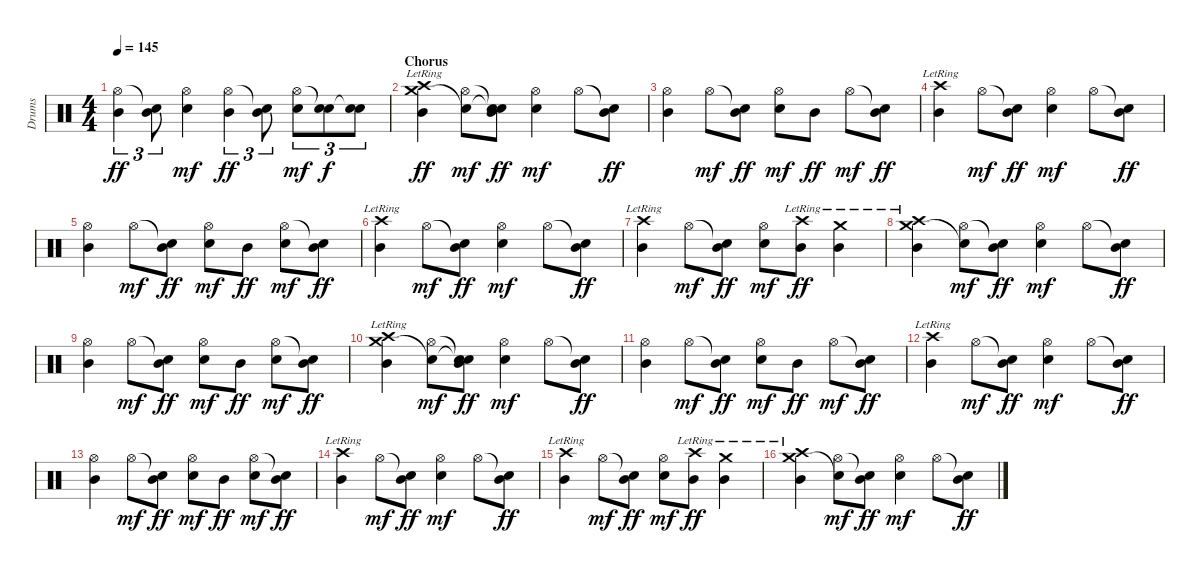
\track ("Drums" "Drums") {instrument percussion}
\staff {score}
\articulation defaults
\ts (4 4)
\tempo 145
\clef neutral
\ks c
("Hi-Hat (open)" "Mid Tom (hit)").4{tu (3 2) dy ff} ("Snare (hit)"{t} "Mid Tom (hit)").8{tu (3 2)} ("Hi-Hat (open)" "Electric Snare (hit)").4{dy mf} ("Hi-Hat (open)" "Mid Tom (hit)").4{tu (3 2) dy ff} ("Snare (hit)"{t} "Mid Tom (hit)").8{tu (3 2)} ("Hi-Hat (open)" "Electric Snare (hit)").8{tu (3 2) dy mf} ("Snare (hit)"{t} "Electric Snare (hit)").8{tu (3 2) dy f} ("Snare (hit)"{t} "Electric Snare (hit)").8{tu (3 2)} |
\section ("" "Chorus")
("Crash high (hit)"{lr} "Crash medium (hit)" "Mid Tom (hit)").4{dy ff} ("Hi-Hat (open)" "Snare (hit)"{t}).8{dy mf} ("Snare (hit)"{t} "Snare (hit)"{t} "Mid Tom (hit)").8{dy ff} ("Hi-Hat (open)" "Electric Snare (hit)").4{dy mf} "Hi-Hat (open)".8 ("Snare (hit)"{t} "Mid Tom (hit)").8{dy ff} |
("Hi-Hat (open)" "Mid Tom (hit)").4 "Hi-Hat (open)".8{dy mf} ("Snare (hit)"{t} "Mid Tom (hit)").8{dy ff} ("Hi-Hat (open)" "Electric Snare (hit)").8{dy mf} "Mid Tom (hit)".8{dy ff} "Hi-Hat (open)".8{dy mf} ("Snare (hit)"{t} "Mid Tom (hit)").8{dy ff} |
("Crash high (hit)"{lr} "Mid Tom (hit)").4 "Hi-Hat (open)".8{dy mf} ("Snare (hit)"{t} "Mid Tom (hit)").8{dy ff} ("Hi-Hat (open)" "Electric Snare (hit)").4{dy mf} "Hi-Hat (open)".8 ("Snare (hit)"{t} "Mid Tom (hit)").8{dy ff} |
("Hi-Hat (open)" "Mid Tom (hit)").4 "Hi-Hat (open)".8{dy mf} ("Snare (hit)"{t} "Mid Tom (hit)").8{dy ff} ("Hi-Hat (open)" "Electric Snare (hit)").8{dy mf} "Mid Tom (hit)".8{dy ff} ("Hi-Hat (open)" "Electric Snare (hit)").8{dy mf} ("Snare (hit)"{t} "Mid Tom (hit)").8{dy ff} |
("Crash high (hit)"{lr} "Mid Tom (hit)").4 "Hi-Hat (open)".8{dy mf} ("Snare (hit)"{t} "Mid Tom (hit)").8{dy ff} ("Hi-Hat (open)" "Electric Snare (hit)").4{dy mf} "Hi-Hat (open)".8 ("Snare (hit)"{t} "Mid Tom (hit)").8{dy ff} |
("Crash high (hit)"{lr} "Mid Tom (hit)").4 "Hi-Hat (open)".8{dy mf} ("Snare (hit)"{t} "Mid Tom (hit)").8{dy ff} ("Hi-Hat (open)" "Electric Snare (hit)").8{dy mf} ("Crash high (hit)"{lr} "Mid Tom (hit)").8{dy ff} ("Crash medium (hit)"{lr} "Mid Tom (hit)").4 |
("Crash high (hit)"{lr} "Crash medium (hit)" "Mid Tom (hit)").4 ("Hi-Hat (open)" "Snare (hit)"{t}).8{dy mf} ("Snare (hit)"{t} "Mid Tom (hit)").8{dy ff} ("Hi-Hat (open)" "Electric Snare (hit)").4{dy mf} "Hi-Hat (open)".8 ("Snare (hit)"{t} "Mid Tom (hit)").8{dy ff} |
("Hi-Hat (open)" "Mid Tom (hit)").4 "Hi-Hat (open)".8{dy mf} ("Snare (hit)"{t} "Mid Tom (hit)").8{dy ff} ("Hi-Hat (open)" "Electric Snare (hit)").8{dy mf} "Mid Tom (hit)".8{dy ff} ("Hi-Hat (open)" "Electric Snare (hit)").8{dy mf} ("Snare (hit)"{t} "Mid Tom (hit)").8{dy ff} |
("Crash high (hit)"{lr} "Crash medium (hit)" "Mid Tom (hit)").4 ("Hi-Hat (open)" "Snare (hit)"{t}).8{dy mf} ("Snare (hit)"{t} "Snare (hit)"{t} "Mid Tom (hit)").8{dy ff} ("Hi-Hat (open)" "Electric Snare (hit)").4{dy mf} "Hi-Hat (open)".8 ("Snare (hit)"{t} "Mid Tom (hit)").8{dy ff} |
("Hi-Hat (open)" "Mid Tom (hit)").4 "Hi-Hat (open)".8{dy mf} ("Snare (hit)"{t} "Mid Tom (hit)").8{dy ff} ("Hi-Hat (open)" "Electric Snare (hit)").8{dy mf} "Mid Tom (hit)".8{dy ff} "Hi-Hat (open)".8{dy mf} ("Snare (hit)"{t} "Mid Tom (hit)").8{dy ff} |
("Crash high (hit)"{lr} "Mid Tom (hit)").4 "Hi-Hat (open)".8{dy mf} ("Snare (hit)"{t} "Mid Tom (hit)").8{dy ff} ("Hi-Hat (open)" "Electric Snare (hit)").4{dy mf} "Hi-Hat (open)".8 ("Snare (hit)"{t} "Mid Tom (hit)").8{dy ff} |
("Hi-Hat (open)" "Mid Tom (hit)").4 "Hi-Hat (open)".8{dy mf} ("Snare (hit)"{t} "Mid Tom (hit)").8{dy ff} ("Hi-Hat (open)" "Electric Snare (hit)").8{dy mf} "Mid Tom (hit)".8{dy ff} ("Hi-Hat (open)" "Electric Snare (hit)").8{dy mf} ("Snare (hit)"{t} "Mid Tom (hit)").8{dy ff} |
("Crash high (hit)"{lr} "Mid Tom (hit)").4 "Hi-Hat (open)".8{dy mf} ("Snare (hit)"{t} "Mid Tom (hit)").8{dy ff} ("Hi-Hat (open)" "Electric Snare (hit)").4{dy mf} "Hi-Hat (open)".8 ("Snare (hit)"{t} "Mid Tom (hit)").8{dy ff} |
("Crash high (hit)"{lr} "Mid Tom (hit)").4 "Hi-Hat (open)".8{dy mf} ("Snare (hit)"{t} "Mid Tom (hit)").8{dy ff} ("Hi-Hat (open)" "Electric Snare (hit)").8{dy mf} ("Crash high (hit)"{lr} "Mid Tom (hit)").8{dy ff} ("Crash medium (hit)"{lr} "Mid Tom (hit)").4 |
("Crash high (hit)"{lr} "Crash medium (hit)" "Mid Tom (hit)").4 ("Hi-Hat (open)" "Snare (hit)"{t}).8{dy mf} ("Snare (hit)"{t} "Mid Tom (hit)").8{dy ff} ("Hi-Hat (open)" "Electric Snare (hit)").4{dy mf} "Hi-Hat (open)".8 ("Snare (hit)"{t} "Mid Tom (hit)").8{dy ff}
